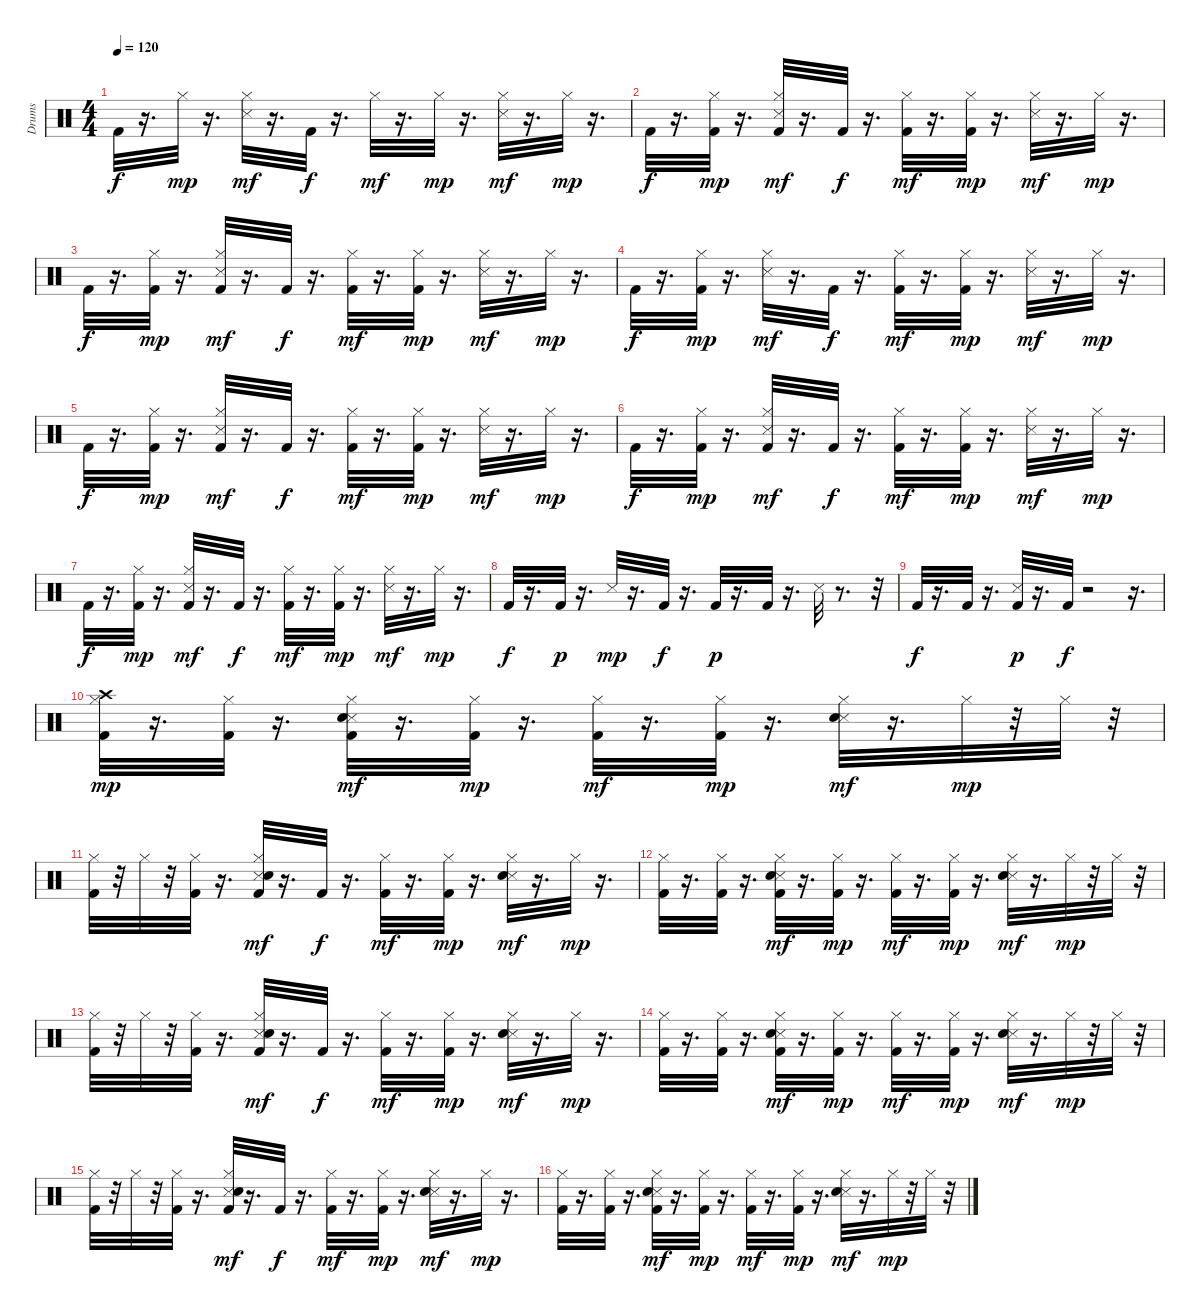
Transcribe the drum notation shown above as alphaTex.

\track ("Drums" "Drums") {instrument percussion}
\staff {score}
\articulation defaults
\ts (4 4)
\tempo 120
\clef neutral
\ks c "Kick (hit) 2".32{dy f}
r.16{d} "Hi-Hat (closed)".32{dy mp} r.16{d} ("Metronome (hit)" "Hi-Hat (closed)").32{dy mf} r.16{d} "Kick (hit) 2".32{dy f} r.16{d} "Hi-Hat (closed)".32{dy mf} r.16{d} "Hi-Hat (closed)".32{dy mp} r.16{d} ("Metronome (hit)" "Hi-Hat (closed)").32{dy mf} r.16{d} "Hi-Hat (closed)".32{dy mp} r.16{d} |
"Kick (hit) 2".32{dy f} r.16{d} ("Kick (hit) 2" "Hi-Hat (closed)").32{dy mp} r.16{d} ("Metronome (hit)" "Kick (hit) 2" "Hi-Hat (closed)").32{dy mf} r.16{d} "Kick (hit) 2".32{dy f} r.16{d} ("Kick (hit) 2" "Hi-Hat (closed)").32{dy mf} r.16{d} ("Kick (hit) 2" "Hi-Hat (closed)").32{dy mp} r.16{d} ("Metronome (hit)" "Hi-Hat (closed)").32{dy mf} r.16{d} "Hi-Hat (closed)".32{dy mp} r.16{d} |
"Kick (hit) 2".32{dy f} r.16{d} ("Kick (hit) 2" "Hi-Hat (closed)").32{dy mp} r.16{d} ("Metronome (hit)" "Kick (hit) 2" "Hi-Hat (closed)").32{dy mf} r.16{d} "Kick (hit) 2".32{dy f} r.16{d} ("Kick (hit) 2" "Hi-Hat (closed)").32{dy mf} r.16{d} ("Kick (hit) 2" "Hi-Hat (closed)").32{dy mp} r.16{d} ("Metronome (hit)" "Hi-Hat (closed)").32{dy mf} r.16{d} "Hi-Hat (closed)".32{dy mp} r.16{d} |
"Kick (hit) 2".32{dy f} r.16{d} ("Kick (hit) 2" "Hi-Hat (closed)").32{dy mp} r.16{d} ("Metronome (hit)" "Hi-Hat (closed)").32{dy mf} r.16{d} "Kick (hit) 2".32{dy f} r.16{d} ("Kick (hit) 2" "Hi-Hat (closed)").32{dy mf} r.16{d} ("Kick (hit) 2" "Hi-Hat (closed)").32{dy mp} r.16{d} ("Metronome (hit)" "Hi-Hat (closed)").32{dy mf} r.16{d} "Hi-Hat (closed)".32{dy mp} r.16{d} |
"Kick (hit) 2".32{dy f} r.16{d} ("Kick (hit) 2" "Hi-Hat (closed)").32{dy mp} r.16{d} ("Metronome (hit)" "Kick (hit) 2" "Hi-Hat (closed)").32{dy mf} r.16{d} "Kick (hit) 2".32{dy f} r.16{d} ("Kick (hit) 2" "Hi-Hat (closed)").32{dy mf} r.16{d} ("Kick (hit) 2" "Hi-Hat (closed)").32{dy mp} r.16{d} ("Metronome (hit)" "Hi-Hat (closed)").32{dy mf} r.16{d} "Hi-Hat (closed)".32{dy mp} r.16{d} |
"Kick (hit) 2".32{dy f} r.16{d} ("Kick (hit) 2" "Hi-Hat (closed)").32{dy mp} r.16{d} ("Metronome (hit)" "Kick (hit) 2" "Hi-Hat (closed)").32{dy mf} r.16{d} "Kick (hit) 2".32{dy f} r.16{d} ("Kick (hit) 2" "Hi-Hat (closed)").32{dy mf} r.16{d} ("Kick (hit) 2" "Hi-Hat (closed)").32{dy mp} r.16{d} ("Metronome (hit)" "Hi-Hat (closed)").32{dy mf} r.16{d} "Hi-Hat (closed)".32{dy mp} r.16{d} |
"Kick (hit) 2".32{dy f} r.16{d} ("Kick (hit) 2" "Hi-Hat (closed)").32{dy mp} r.16{d} ("Metronome (hit)" "Kick (hit) 2" "Hi-Hat (closed)").32{dy mf} r.16{d} "Kick (hit) 2".32{dy f} r.16{d} ("Kick (hit) 2" "Hi-Hat (closed)").32{dy mf} r.16{d} ("Kick (hit) 2" "Hi-Hat (closed)").32{dy mp} r.16{d} ("Metronome (hit)" "Hi-Hat (closed)").32{dy mf} r.16{d} "Hi-Hat (closed)".32{dy mp} r.16{d} |
"Kick (hit) 2".32{dy f} r.16{d} "Kick (hit) 2".32{dy p} r.16{d} "Metronome (hit)".32{dy mp} r.16{d} "Kick (hit) 2".32{dy f} r.16{d} "Kick (hit) 2".32{dy p} r.16{d} "Kick (hit) 2".32 r.16{d} "Metronome (hit)".32 r.8{d} r.32 |
"Kick (hit) 2".32{dy f} r.16{d} "Kick (hit) 2".32 r.16{d} ("Metronome (hit)" "Kick (hit) 2").32{dy p} r.16{d} "Kick (hit) 2".32{dy f} r.2 r.16{d} |
("Kick (hit) 2" "Hi-Hat (closed)" "Crash high (hit)").32{dy mp} r.16{d} ("Kick (hit) 2" "Hi-Hat (closed)").32 r.16{d} ("Metronome (hit)" "Kick (hit) 2" "Snare (hit) 2" "Hi-Hat (closed)").32{dy mf} r.16{d} ("Kick (hit) 2" "Hi-Hat (closed)").32{dy mp} r.16{d} ("Kick (hit) 2" "Hi-Hat (closed)").32{dy mf} r.16{d} ("Kick (hit) 2" "Hi-Hat (closed)").32{dy mp} r.16{d} ("Metronome (hit)" "Snare (hit) 2" "Hi-Hat (closed)").32{dy mf} r.16{d} "Hi-Hat (closed)".32{dy mp} r.32 "Hi-Hat (closed)".32 r.32 |
("Kick (hit) 2" "Hi-Hat (closed)").32 r.32 "Hi-Hat (closed)".32 r.32 ("Kick (hit) 2" "Hi-Hat (closed)").32 r.16{d} ("Metronome (hit)" "Kick (hit) 2" "Snare (hit) 2" "Hi-Hat (closed)").32{dy mf} r.16{d} "Kick (hit) 2".32{dy f} r.16{d} ("Kick (hit) 2" "Hi-Hat (closed)").32{dy mf} r.16{d} ("Kick (hit) 2" "Hi-Hat (closed)").32{dy mp} r.16{d} ("Metronome (hit)" "Snare (hit) 2" "Hi-Hat (closed)").32{dy mf} r.16{d} "Hi-Hat (closed)".32{dy mp} r.16{d} |
("Kick (hit) 2" "Hi-Hat (closed)").32 r.16{d} ("Kick (hit) 2" "Hi-Hat (closed)").32 r.16{d} ("Metronome (hit)" "Kick (hit) 2" "Snare (hit) 2" "Hi-Hat (closed)").32{dy mf} r.16{d} ("Kick (hit) 2" "Hi-Hat (closed)").32{dy mp} r.16{d} ("Kick (hit) 2" "Hi-Hat (closed)").32{dy mf} r.16{d} ("Kick (hit) 2" "Hi-Hat (closed)").32{dy mp} r.16{d} ("Metronome (hit)" "Snare (hit) 2" "Hi-Hat (closed)").32{dy mf} r.16{d} "Hi-Hat (closed)".32{dy mp} r.32 "Hi-Hat (closed)".32 r.32 |
("Kick (hit) 2" "Hi-Hat (closed)").32 r.32 "Hi-Hat (closed)".32 r.32 ("Kick (hit) 2" "Hi-Hat (closed)").32 r.16{d} ("Metronome (hit)" "Kick (hit) 2" "Snare (hit) 2" "Hi-Hat (closed)").32{dy mf} r.16{d} "Kick (hit) 2".32{dy f} r.16{d} ("Kick (hit) 2" "Hi-Hat (closed)").32{dy mf} r.16{d} ("Kick (hit) 2" "Hi-Hat (closed)").32{dy mp} r.16{d} ("Metronome (hit)" "Snare (hit) 2" "Hi-Hat (closed)").32{dy mf} r.16{d} "Hi-Hat (closed)".32{dy mp} r.16{d} |
("Kick (hit) 2" "Hi-Hat (closed)").32 r.16{d} ("Kick (hit) 2" "Hi-Hat (closed)").32 r.16{d} ("Metronome (hit)" "Kick (hit) 2" "Snare (hit) 2" "Hi-Hat (closed)").32{dy mf} r.16{d} ("Kick (hit) 2" "Hi-Hat (closed)").32{dy mp} r.16{d} ("Kick (hit) 2" "Hi-Hat (closed)").32{dy mf} r.16{d} ("Kick (hit) 2" "Hi-Hat (closed)").32{dy mp} r.16{d} ("Metronome (hit)" "Snare (hit) 2" "Hi-Hat (closed)").32{dy mf} r.16{d} "Hi-Hat (closed)".32{dy mp} r.32 "Hi-Hat (closed)".32 r.32 |
("Kick (hit) 2" "Hi-Hat (closed)").32 r.32 "Hi-Hat (closed)".32 r.32 ("Kick (hit) 2" "Hi-Hat (closed)").32 r.16{d} ("Metronome (hit)" "Kick (hit) 2" "Snare (hit) 2" "Hi-Hat (closed)").32{dy mf} r.16{d} "Kick (hit) 2".32{dy f} r.16{d} ("Kick (hit) 2" "Hi-Hat (closed)").32{dy mf} r.16{d} ("Kick (hit) 2" "Hi-Hat (closed)").32{dy mp} r.16{d} ("Metronome (hit)" "Snare (hit) 2" "Hi-Hat (closed)").32{dy mf} r.16{d} "Hi-Hat (closed)".32{dy mp} r.16{d} |
("Kick (hit) 2" "Hi-Hat (closed)").32 r.16{d} ("Kick (hit) 2" "Hi-Hat (closed)").32 r.16{d} ("Metronome (hit)" "Kick (hit) 2" "Snare (hit) 2" "Hi-Hat (closed)").32{dy mf} r.16{d} ("Kick (hit) 2" "Hi-Hat (closed)").32{dy mp} r.16{d} ("Kick (hit) 2" "Hi-Hat (closed)").32{dy mf} r.16{d} ("Kick (hit) 2" "Hi-Hat (closed)").32{dy mp} r.16{d} ("Metronome (hit)" "Snare (hit) 2" "Hi-Hat (closed)").32{dy mf} r.16{d} "Hi-Hat (closed)".32{dy mp} r.32 "Hi-Hat (closed)".32 r.32
